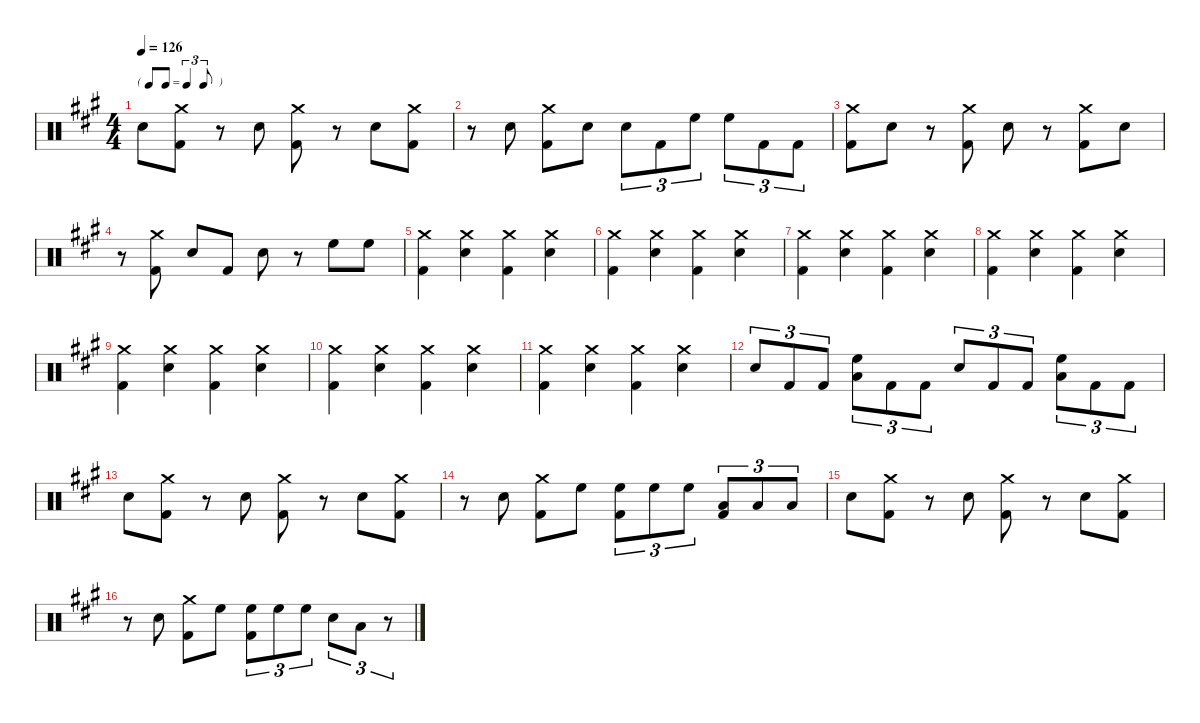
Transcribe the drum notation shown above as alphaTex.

\hideDynamics
\bracketExtendMode nobrackets
\singleTrackTrackNamePolicy hidden
\multiTrackTrackNamePolicy hidden
\firstSystemTrackNameMode fullname
\firstSystemTrackNameOrientation horizontal
\otherSystemsTrackNameOrientation horizontal
\track ("Drumkit" "Drums") {defaultSystemsLayout 4 instrument percussion}
\staff {score}
\articulation defaults
\ts (4 4)
\tf triplet8th
\scale
0.5
\tempo 126
\accidentals auto
\clef neutral
\ottava regular
\simile none
\ks a "Snare (hit) 2"{acc forcenatural}.8{dy f beam Down}
("Crash medium (hit)"{acc forcenatural} "Kick (hit) 2"{acc forcenatural}).8{beam Down} r.8{beam Down} "Snare (hit) 2"{acc forcenatural}.8{beam Down} ("Crash medium (hit)"{acc forcenatural} "Kick (hit) 2"{acc forcenatural}).8{beam Down} r.8{beam Down} "Snare (hit) 2"{acc forcenatural}.8{beam Down} ("Crash medium (hit)"{acc forcenatural} "Kick (hit) 2"{acc forcenatural}).8{beam Down} |
\scale
0.5 r.8{beam Down} "Snare (hit) 2"{acc forcenatural}.8{beam Down} ("Crash medium (hit)"{acc forcenatural} "Kick (hit) 2"{acc forcenatural}).8{beam Down} "Snare (hit) 2"{acc forcenatural}.8{beam Down} "Snare (hit) 2"{acc forcenatural}.8{tu (3 2) beam Down} "Kick (hit) 2"{acc forcenatural}.8{tu (3 2) beam Down} "High Floor Tom (hit)"{acc forcenatural}.8{tu (3 2) beam Down} "High Floor Tom (hit)"{acc forcenatural}.8{tu (3 2) beam Down} "Kick (hit) 2"{acc forcenatural}.8{tu (3 2) beam Down} "Kick (hit) 2"{acc forcenatural}.8{tu (3 2) beam Down} |
\scale
0.5 ("Crash medium (hit)"{acc forcenatural} "Kick (hit) 2"{acc forcenatural}).8{beam Down} "Snare (hit) 2"{acc forcenatural}.8{beam Down} r.8{beam Down} ("Crash medium (hit)"{acc forcenatural} "Kick (hit) 2"{acc forcenatural}).8{beam Down} "Snare (hit) 2"{acc forcenatural}.8{beam Down} r.8{beam Down} ("Crash medium (hit)"{acc forcenatural} "Kick (hit) 2"{acc forcenatural}).8{beam Down} "Snare (hit) 2"{acc forcenatural}.8{beam Down} |
\scale
0.5 r.8{beam Down} ("Crash medium (hit)"{acc forcenatural} "Kick (hit) 2"{acc forcenatural}).8{beam Down} "Snare (hit) 2"{acc forcenatural}.8{beam Up} "Kick (hit) 2"{acc forcenatural}.8{beam Up} "Snare (hit) 2"{acc forcenatural}.8{beam Down} r.8{beam Down} "High Floor Tom (hit)"{acc forcenatural}.8{beam Down} "High Floor Tom (hit)"{acc forcenatural}.8{beam Down} |
\scale
0.5 ("Crash medium (hit)"{acc forcenatural} "Kick (hit) 2"{acc forcenatural}).4{beam Down} ("Crash medium (hit)"{acc forcenatural} "Snare (hit) 2"{acc forcenatural}).4{beam Down} ("Crash medium (hit)"{acc forcenatural} "Kick (hit) 2"{acc forcenatural}).4{beam Down} ("Crash medium (hit)"{acc forcenatural} "Snare (hit) 2"{acc forcenatural}).4{beam Down} |
\scale
0.5 ("Crash medium (hit)"{acc forcenatural} "Kick (hit) 2"{acc forcenatural}).4{beam Down} ("Crash medium (hit)"{acc forcenatural} "Snare (hit) 2"{acc forcenatural}).4{beam Down} ("Crash medium (hit)"{acc forcenatural} "Kick (hit) 2"{acc forcenatural}).4{beam Down} ("Crash medium (hit)"{acc forcenatural} "Snare (hit) 2"{acc forcenatural}).4{beam Down} |
\scale
0.5 ("Crash medium (hit)"{acc forcenatural} "Kick (hit) 2"{acc forcenatural}).4{beam Down} ("Crash medium (hit)"{acc forcenatural} "Snare (hit) 2"{acc forcenatural}).4{beam Down} ("Crash medium (hit)"{acc forcenatural} "Kick (hit) 2"{acc forcenatural}).4{beam Down} ("Crash medium (hit)"{acc forcenatural} "Snare (hit) 2"{acc forcenatural}).4{beam Down} |
\scale
0.5 ("Crash medium (hit)"{acc forcenatural} "Kick (hit) 2"{acc forcenatural}).4{beam Down} ("Crash medium (hit)"{acc forcenatural} "Snare (hit) 2"{acc forcenatural}).4{beam Down} ("Crash medium (hit)"{acc forcenatural} "Kick (hit) 2"{acc forcenatural}).4{beam Down} ("Crash medium (hit)"{acc forcenatural} "Snare (hit) 2"{acc forcenatural}).4{beam Down} |
\scale
0.5 ("Crash medium (hit)"{acc forcenatural} "Kick (hit) 2"{acc forcenatural}).4{beam Down} ("Crash medium (hit)"{acc forcenatural} "Snare (hit) 2"{acc forcenatural}).4{beam Down} ("Crash medium (hit)"{acc forcenatural} "Kick (hit) 2"{acc forcenatural}).4{beam Down} ("Crash medium (hit)"{acc forcenatural} "Snare (hit) 2"{acc forcenatural}).4{beam Down} |
\scale
0.5 ("Crash medium (hit)"{acc forcenatural} "Kick (hit) 2"{acc forcenatural}).4{beam Down} ("Crash medium (hit)"{acc forcenatural} "Snare (hit) 2"{acc forcenatural}).4{beam Down} ("Crash medium (hit)"{acc forcenatural} "Kick (hit) 2"{acc forcenatural}).4{beam Down} ("Crash medium (hit)"{acc forcenatural} "Snare (hit) 2"{acc forcenatural}).4{beam Down} |
\scale
0.589681 ("Crash medium (hit)"{acc forcenatural} "Kick (hit) 2"{acc forcenatural}).4{beam Down} ("Crash medium (hit)"{acc forcenatural} "Snare (hit) 2"{acc forcenatural}).4{beam Down} ("Crash medium (hit)"{acc forcenatural} "Kick (hit) 2"{acc forcenatural}).4{beam Down} ("Crash medium (hit)"{acc forcenatural} "Snare (hit) 2"{acc forcenatural}).4{beam Down} |
\scale
0.410319 "Snare (hit) 2"{acc forcenatural}.8{tu (3 2) beam Up} "Kick (hit) 2"{acc forcenatural}.8{tu (3 2) beam Up} "Kick (hit) 2"{acc forcenatural}.8{tu (3 2) beam Up} ("High Floor Tom (hit)"{acc forcenatural} "Low Tom (hit)"{acc forcenatural}).8{tu (3 2) beam Down} "Kick (hit) 2"{acc forcenatural}.8{tu (3 2) beam Down} "Kick (hit) 2"{acc forcenatural}.8{tu (3 2) beam Down} "Snare (hit) 2"{acc forcenatural}.8{tu (3 2) beam Up} "Kick (hit) 2"{acc forcenatural}.8{tu (3 2) beam Up} "Kick (hit) 2"{acc forcenatural}.8{tu (3 2) beam Up} ("High Floor Tom (hit)"{acc forcenatural} "Low Tom (hit)"{acc forcenatural}).8{tu (3 2) beam Down} "Kick (hit) 2"{acc forcenatural}.8{tu (3 2) beam Down} "Kick (hit) 2"{acc forcenatural}.8{tu (3 2) beam Down} |
\scale
0.5 "Snare (hit) 2"{acc forcenatural}.8{beam Down} ("Crash medium (hit)"{acc forcenatural} "Kick (hit) 2"{acc forcenatural}).8{beam Down} r.8{beam Down} "Snare (hit) 2"{acc forcenatural}.8{beam Down} ("Crash medium (hit)"{acc forcenatural} "Kick (hit) 2"{acc forcenatural}).8{beam Down} r.8{beam Down} "Snare (hit) 2"{acc forcenatural}.8{beam Down} ("Crash medium (hit)"{acc forcenatural} "Kick (hit) 2"{acc forcenatural}).8{beam Down} |
\scale
0.5 r.8{beam Down} "Snare (hit) 2"{acc forcenatural}.8{beam Down} ("Crash medium (hit)"{acc forcenatural} "Kick (hit) 2"{acc forcenatural}).8{beam Down} "High Floor Tom (hit)"{acc forcenatural}.8{beam Down} ("High Floor Tom (hit)"{acc forcenatural} "Kick (hit) 2"{acc forcenatural}).8{tu (3 2) beam Down} "High Floor Tom (hit)"{acc forcenatural}.8{tu (3 2) beam Down} "High Floor Tom (hit)"{acc forcenatural}.8{tu (3 2) beam Down} ("Low Tom (hit)"{acc forcenatural} "Kick (hit) 2"{acc forcenatural}).8{tu (3 2) beam Up} "Low Tom (hit)"{acc forcenatural}.8{tu (3 2) beam Up} "Low Tom (hit)"{acc forcenatural}.8{tu (3 2) beam Up} |
\scale
0.411765 "Snare (hit) 2"{acc forcenatural}.8{beam Down} ("Crash medium (hit)"{acc forcenatural} "Kick (hit) 2"{acc forcenatural}).8{beam Down} r.8{beam Down} "Snare (hit) 2"{acc forcenatural}.8{beam Down} ("Crash medium (hit)"{acc forcenatural} "Kick (hit) 2"{acc forcenatural}).8{beam Down} r.8{beam Down} "Snare (hit) 2"{acc forcenatural}.8{beam Down} ("Crash medium (hit)"{acc forcenatural} "Kick (hit) 2"{acc forcenatural}).8{beam Down} |
\scale
0.588235 r.8{beam Down} "Snare (hit) 2"{acc forcenatural}.8{beam Down} ("Crash medium (hit)"{acc forcenatural} "Kick (hit) 2"{acc forcenatural}).8{beam Down} "High Floor Tom (hit)"{acc forcenatural}.8{beam Down} ("High Floor Tom (hit)"{acc forcenatural} "Kick (hit) 2"{acc forcenatural}).8{tu (3 2) beam Down} "High Floor Tom (hit)"{acc forcenatural}.8{tu (3 2) beam Down} "High Floor Tom (hit)"{acc forcenatural}.8{tu (3 2) beam Down} "Snare (hit) 2"{acc forcenatural}.8{tu (3 2) beam Down} "Low Tom (hit)"{acc forcenatural}.8{tu (3 2) beam Down} r.8{tu (3 2) beam Down}
